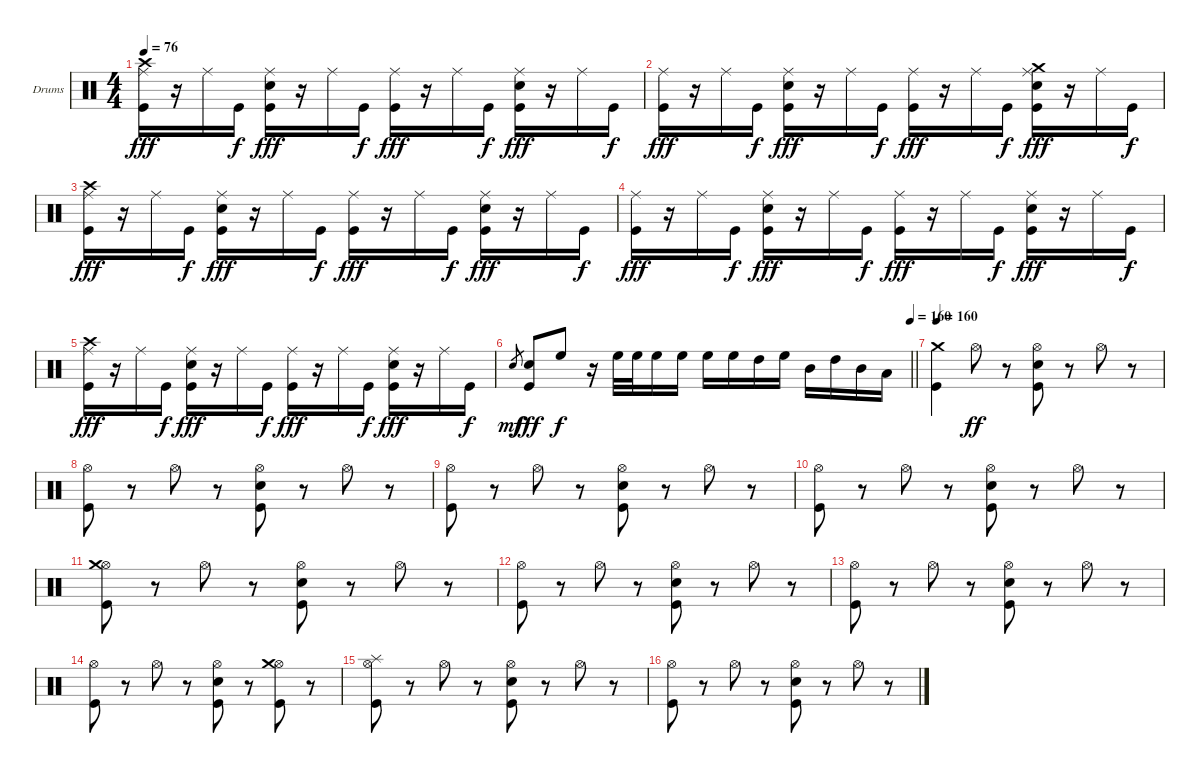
\bracketExtendMode groupsimilarinstruments
\firstSystemTrackNameOrientation horizontal
\otherSystemsTrackNameOrientation horizontal
\track ("Drumkit" "Drums") {instrument percussion}
\staff {score}
\articulation defaults
\ts (4 4)
\tempo 76
\clef neutral
\ks c
("Ride (middle)" "Crash high (hit)" "Kick (hit)").16{dy fff} r.16 "Ride (middle)".16 "Kick (hit)".16{dy f} ("Ride (middle)" "Snare (hit) 2" "Kick (hit)").16{dy fff} r.16 "Ride (middle)".16 "Kick (hit)".16{dy f} ("Ride (middle)" "Kick (hit)").16{dy fff} r.16 "Ride (middle)".16 "Kick (hit)".16{dy f} ("Ride (middle)" "Snare (hit) 2" "Kick (hit)").16{dy fff} r.16 "Ride (middle)".16 "Kick (hit)".16{dy f} |
("Ride (middle)" "Kick (hit)").16{dy fff} r.16 "Ride (middle)".16 "Kick (hit)".16{dy f} ("Ride (middle)" "Snare (hit) 2" "Kick (hit)").16{dy fff} r.16 "Ride (middle)".16 "Kick (hit)".16{dy f} ("Ride (middle)" "Kick (hit)").16{dy fff} r.16 "Ride (middle)".16 "Kick (hit)".16{dy f} ("Ride (middle)" "Crash medium (hit)" "Snare (hit) 2" "Kick (hit)").16{dy fff} r.16 "Ride (middle)".16 "Kick (hit)".16{dy f} |
("Ride (middle)" "Crash high (hit)" "Kick (hit)").16{dy fff} r.16 "Ride (middle)".16 "Kick (hit)".16{dy f} ("Ride (middle)" "Snare (hit) 2" "Kick (hit)").16{dy fff} r.16 "Ride (middle)".16 "Kick (hit)".16{dy f} ("Ride (middle)" "Kick (hit)").16{dy fff} r.16 "Ride (middle)".16 "Kick (hit)".16{dy f} ("Ride (middle)" "Snare (hit) 2" "Kick (hit)").16{dy fff} r.16 "Ride (middle)".16 "Kick (hit)".16{dy f} |
("Ride (middle)" "Kick (hit)").16{dy fff} r.16 "Ride (middle)".16 "Kick (hit)".16{dy f} ("Ride (middle)" "Snare (hit) 2" "Kick (hit)").16{dy fff} r.16 "Ride (middle)".16 "Kick (hit)".16{dy f} ("Ride (middle)" "Kick (hit)").16{dy fff} r.16 "Ride (middle)".16 "Kick (hit)".16{dy f} ("Ride (middle)" "Snare (hit) 2" "Kick (hit)").16{dy fff} r.16 "Ride (middle)".16 "Kick (hit)".16{dy f} |
("Ride (middle)" "Crash high (hit)" "Kick (hit)").16{dy fff} r.16 "Ride (middle)".16 "Kick (hit)".16{dy f} ("Ride (middle)" "Snare (hit) 2" "Kick (hit)").16{dy fff} r.16 "Ride (middle)".16 "Kick (hit)".16{dy f} ("Ride (middle)" "Kick (hit)").16{dy fff} r.16 "Ride (middle)".16 "Kick (hit)".16{dy f} ("Ride (middle)" "Snare (hit) 2" "Kick (hit)").16{dy fff} r.16 "Ride (middle)".16 "Kick (hit)".16{dy f} |
\tempo (160 1)
\barLineRight lightlight "Snare (hit) 2".8{gr dy mf}
("Snare (hit) 2" "Kick (hit)").8{dy fff} "High Floor Tom (hit)".8{dy f} r.16 "High Floor Tom (hit)".32 "High Floor Tom (hit)".32 "High Floor Tom (hit)".16 "High Floor Tom (hit)".16 "High Floor Tom (hit)".16 "High Floor Tom (hit)".16 "High Tom (hit)".16 "High Floor Tom (hit)".16 "Mid Tom (hit)".16 "High Tom (hit)".16 "Mid Tom (hit)".16 "Low Tom (hit)".16 |
\tempo 160
("Crash medium (hit)" "Kick (hit)").4 "Hi-Hat (open)".8{dy ff} r.8 ("Hi-Hat (open)" "Snare (hit) 2" "Kick (hit)").8 r.8 "Hi-Hat (open)".8 r.8 |
("Hi-Hat (open)" "Kick (hit)").8 r.8 "Hi-Hat (open)".8 r.8 ("Hi-Hat (open)" "Snare (hit) 2" "Kick (hit)").8 r.8 "Hi-Hat (open)".8 r.8 |
("Hi-Hat (open)" "Kick (hit)").8 r.8 "Hi-Hat (open)".8 r.8 ("Hi-Hat (open)" "Snare (hit) 2" "Kick (hit)").8 r.8 "Hi-Hat (open)".8 r.8 |
("Hi-Hat (open)" "Kick (hit)").8 r.8 "Hi-Hat (open)".8 r.8 ("Hi-Hat (open)" "Snare (hit) 2" "Kick (hit)").8 r.8 "Hi-Hat (open)".8 r.8 |
("Hi-Hat (open)" "Crash medium (hit)" "Kick (hit)").8 r.8 "Hi-Hat (open)".8 r.8 ("Hi-Hat (open)" "Snare (hit) 2" "Kick (hit)").8 r.8 "Hi-Hat (open)".8 r.8 |
("Hi-Hat (open)" "Kick (hit)").8 r.8 "Hi-Hat (open)".8 r.8 ("Hi-Hat (open)" "Snare (hit) 2" "Kick (hit)").8 r.8 "Hi-Hat (open)".8 r.8 |
("Hi-Hat (open)" "Kick (hit)").8 r.8 "Hi-Hat (open)".8 r.8 ("Hi-Hat (open)" "Snare (hit) 2" "Kick (hit)").8 r.8 "Hi-Hat (open)".8 r.8 |
("Hi-Hat (open)" "Kick (hit)").8 r.8 "Hi-Hat (open)".8 r.8 ("Hi-Hat (open)" "Snare (hit) 2" "Kick (hit)").8 r.8 ("Hi-Hat (open)" "Crash medium (hit)" "Kick (hit)").8 r.8 |
("Hi-Hat (open)" "Splash (hit)" "Kick (hit)").8 r.8 "Hi-Hat (open)".8 r.8 ("Hi-Hat (open)" "Snare (hit) 2" "Kick (hit)").8 r.8 "Hi-Hat (open)".8 r.8 |
("Hi-Hat (open)" "Kick (hit)").8 r.8 "Hi-Hat (open)".8 r.8 ("Hi-Hat (open)" "Snare (hit) 2" "Kick (hit)").8 r.8 "Hi-Hat (open)".8 r.8
